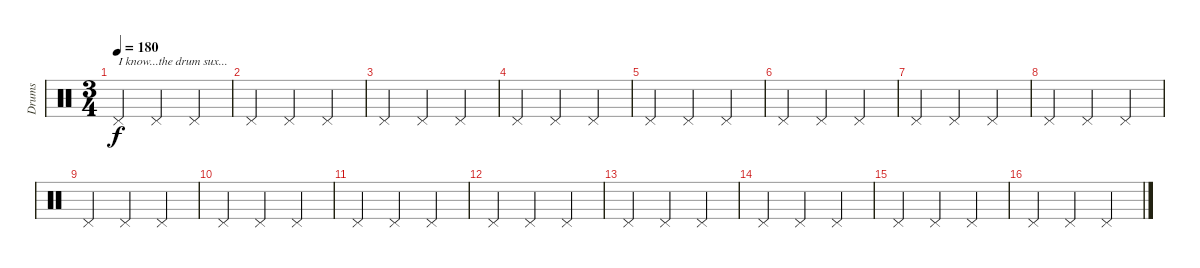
\track ("Drums" "Drums") {instrument percussion}
\staff {score}
\articulation defaults
\ts (3 4)
\tempo 180
\tempo 145
\tempo 180
\clef neutral
\ks c "Pedal Hi-Hat (hit)".4{txt "I know...the drum sux..." dy f} "Pedal Hi-Hat (hit)".4 "Pedal Hi-Hat (hit)".4
|
"Pedal Hi-Hat (hit)".4 "Pedal Hi-Hat (hit)".4 "Pedal Hi-Hat (hit)".4 |
"Pedal Hi-Hat (hit)".4 "Pedal Hi-Hat (hit)".4 "Pedal Hi-Hat (hit)".4 |
"Pedal Hi-Hat (hit)".4 "Pedal Hi-Hat (hit)".4 "Pedal Hi-Hat (hit)".4 |
"Pedal Hi-Hat (hit)".4 "Pedal Hi-Hat (hit)".4 "Pedal Hi-Hat (hit)".4 |
"Pedal Hi-Hat (hit)".4 "Pedal Hi-Hat (hit)".4 "Pedal Hi-Hat (hit)".4 |
"Pedal Hi-Hat (hit)".4 "Pedal Hi-Hat (hit)".4 "Pedal Hi-Hat (hit)".4 |
"Pedal Hi-Hat (hit)".4 "Pedal Hi-Hat (hit)".4 "Pedal Hi-Hat (hit)".4 |
"Pedal Hi-Hat (hit)".4 "Pedal Hi-Hat (hit)".4 "Pedal Hi-Hat (hit)".4 |
"Pedal Hi-Hat (hit)".4 "Pedal Hi-Hat (hit)".4 "Pedal Hi-Hat (hit)".4 |
"Pedal Hi-Hat (hit)".4 "Pedal Hi-Hat (hit)".4 "Pedal Hi-Hat (hit)".4 |
"Pedal Hi-Hat (hit)".4 "Pedal Hi-Hat (hit)".4 "Pedal Hi-Hat (hit)".4 |
"Pedal Hi-Hat (hit)".4 "Pedal Hi-Hat (hit)".4 "Pedal Hi-Hat (hit)".4 |
"Pedal Hi-Hat (hit)".4 "Pedal Hi-Hat (hit)".4 "Pedal Hi-Hat (hit)".4 |
"Pedal Hi-Hat (hit)".4 "Pedal Hi-Hat (hit)".4 "Pedal Hi-Hat (hit)".4 |
"Pedal Hi-Hat (hit)".4 "Pedal Hi-Hat (hit)".4 "Pedal Hi-Hat (hit)".4
